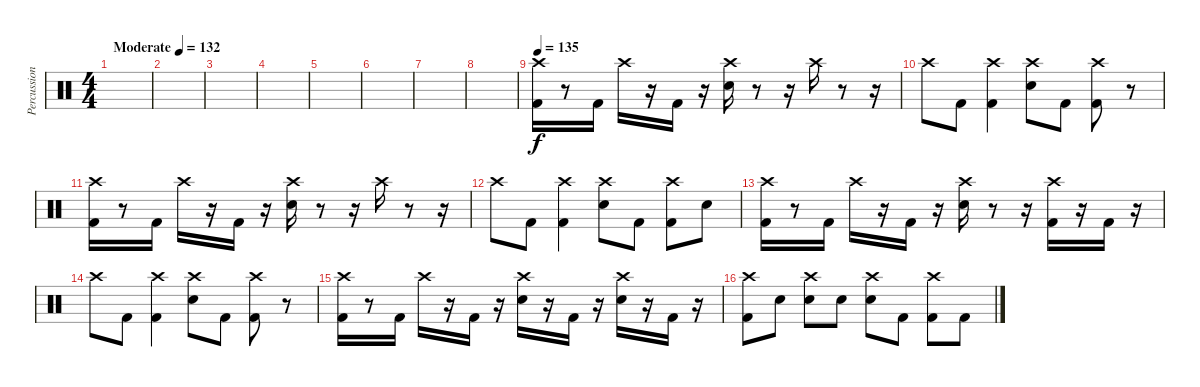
\track ("Percussion" "Percussion") {instrument percussion}
\staff {score}
\articulation defaults
\ts (4 4)
\tempo (132 "Moderate")
\clef neutral
\ks c
|
|
|
|
|
|
|
|
\tempo 135
("Crash high (hit)" "Kick (hit) 2").16 r.8 "Kick (hit) 2".16 "Crash high (hit)".16 r.16 "Kick (hit) 2".16 r.16 ("Crash high (hit)" "Electric Snare (hit)").16 r.8 r.16 "Crash high (hit)".16 r.8 r.16 |
"Crash high (hit)".8 "Kick (hit) 2".8 ("Crash high (hit)" "Kick (hit) 2").4 ("Crash high (hit)" "Electric Snare (hit)").8 "Kick (hit) 2".8 ("Crash high (hit)" "Kick (hit) 2").8 r.8 |
("Crash high (hit)" "Kick (hit) 2").16 r.8 "Kick (hit) 2".16 "Crash high (hit)".16 r.16 "Kick (hit) 2".16 r.16 ("Crash high (hit)" "Electric Snare (hit)").16 r.8 r.16 "Crash high (hit)".16 r.8 r.16 |
"Crash high (hit)".8 "Kick (hit) 2".8 ("Crash high (hit)" "Kick (hit) 2").4 ("Crash high (hit)" "Electric Snare (hit)").8 "Kick (hit) 2".8 ("Crash high (hit)" "Kick (hit) 2").8 "Electric Snare (hit)".8 |
("Crash high (hit)" "Kick (hit) 2").16 r.8 "Kick (hit) 2".16 "Crash high (hit)".16 r.16 "Kick (hit) 2".16 r.16 ("Crash high (hit)" "Electric Snare (hit)").16 r.8 r.16 ("Crash high (hit)" "Kick (hit) 2").16 r.16 "Kick (hit) 2".16 r.16 |
"Crash high (hit)".8 "Kick (hit) 2".8 ("Crash high (hit)" "Kick (hit) 2").4 ("Crash high (hit)" "Electric Snare (hit)").8 "Kick (hit) 2".8 ("Crash high (hit)" "Kick (hit) 2").8 r.8 |
("Crash high (hit)" "Kick (hit) 2").16 r.8 "Kick (hit) 2".16 "Crash high (hit)".16 r.16 "Kick (hit) 2".16 r.16 ("Crash high (hit)" "Electric Snare (hit)").16 r.16 "Kick (hit) 2".16 r.16 ("Crash high (hit)" "Electric Snare (hit)").16 r.16 "Kick (hit) 2".16 r.16 |
("Crash high (hit)" "Kick (hit) 2").8 "Electric Snare (hit)".8 ("Crash high (hit)" "Electric Snare (hit)").8 "Electric Snare (hit)".8 ("Crash high (hit)" "Electric Snare (hit)").8 "Kick (hit) 2".8 ("Crash high (hit)" "Kick (hit) 2").8 "Kick (hit) 2".8
